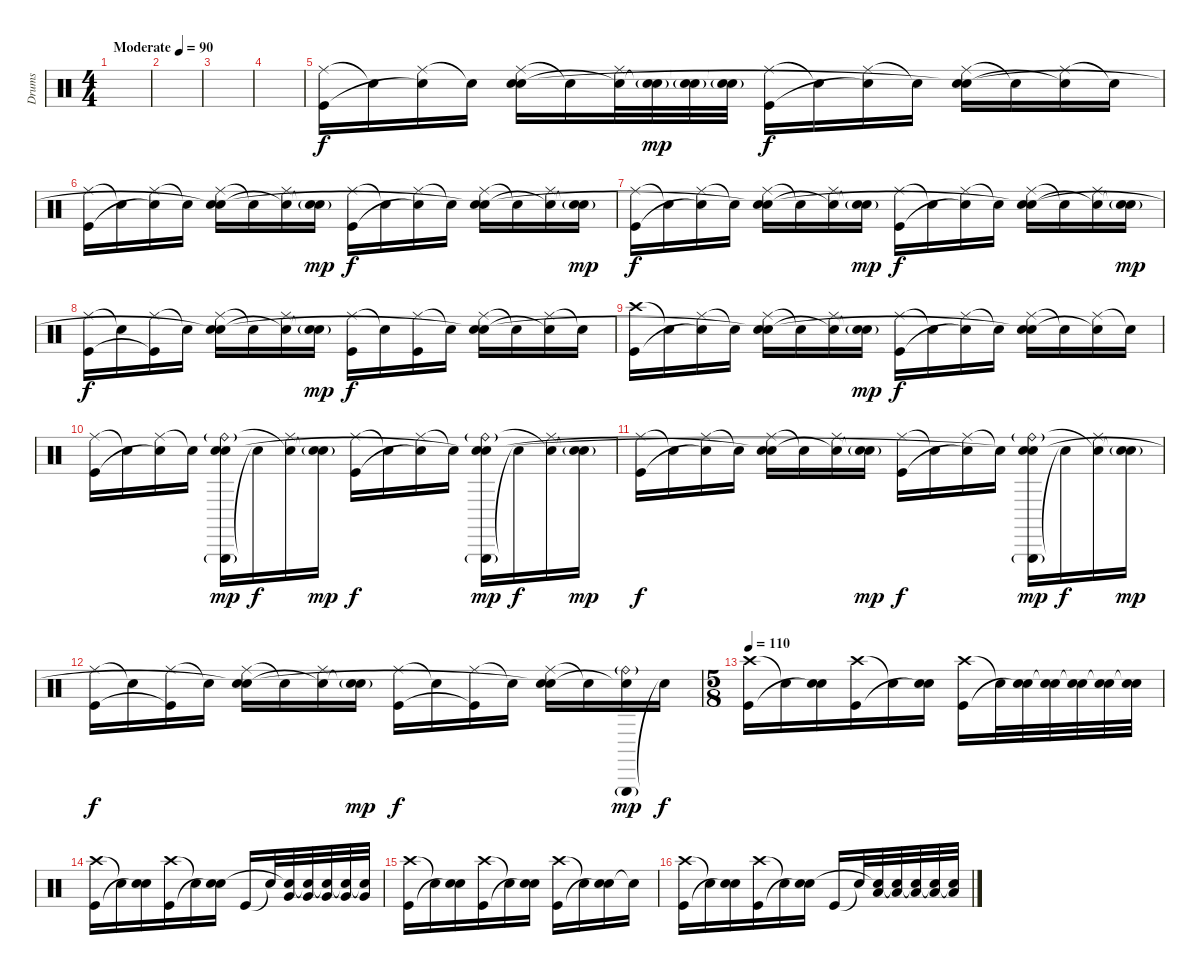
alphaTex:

\track ("Drums" "Drums") {instrument percussion}
\staff {score}
\articulation defaults
\ts (4 4)
\tempo (90 "Moderate")
\clef neutral
\ks c
|
|
|
|
("Ride (middle)" "Kick (hit)").16 "Snare (hit)"{t}.16 ("Ride (middle)" "Snare (hit)"{t}).16 "Snare (hit)"{t}.16 ("Ride (middle)" "Electric Snare (hit)" "Snare (hit)").16 "Snare (hit)"{t}.16 ("Ride (middle)" "Snare (hit)"{t}).32 ("Electric Snare (hit)"{g} "Snare (hit)"{t}).32{dy mp} ("Electric Snare (hit)"{g} "Snare (hit)"{t}).32 ("Electric Snare (hit)"{g} "Snare (hit)"{t}).32 ("Ride (middle)" "Kick (hit)").16{dy f} "Snare (hit)"{t}.16 ("Ride (middle)" "Snare (hit)"{t}).16 "Snare (hit)"{t}.16 ("Ride (middle)" "Electric Snare (hit)" "Snare (hit)"{t}).16 "Snare (hit)"{t}.16 ("Ride (middle)" "Snare (hit)"{t}).16 "Snare (hit)"{t}.16 |
("Ride (middle)" "Kick (hit)").16 "Snare (hit)"{t}.16 ("Ride (middle)" "Snare (hit)"{t}).16 "Snare (hit)"{t}.16 ("Ride (middle)" "Electric Snare (hit)" "Snare (hit)"{t}).16 "Snare (hit)"{t}.16 ("Ride (middle)" "Snare (hit)"{t}).16 ("Electric Snare (hit)"{g} "Snare (hit)"{t}).16{dy mp} ("Ride (middle)" "Kick (hit)").16{dy f} "Snare (hit)"{t}.16 ("Ride (middle)" "Snare (hit)"{t}).16 "Snare (hit)"{t}.16 ("Ride (middle)" "Electric Snare (hit)" "Snare (hit)"{t}).16 "Snare (hit)"{t}.16 ("Ride (middle)" "Snare (hit)"{t}).16 ("Electric Snare (hit)"{g} "Snare (hit)"{t}).16{dy mp} |
("Ride (middle)" "Kick (hit)").16{dy f} "Snare (hit)"{t}.16 ("Ride (middle)" "Snare (hit)"{t}).16 "Snare (hit)"{t}.16 ("Ride (middle)" "Electric Snare (hit)" "Snare (hit)"{t}).16 "Snare (hit)"{t}.16 ("Ride (middle)" "Snare (hit)"{t}).16 ("Electric Snare (hit)"{g} "Snare (hit)"{t}).16{dy mp} ("Ride (middle)" "Kick (hit)").16{dy f} "Snare (hit)"{t}.16 ("Ride (middle)" "Snare (hit)"{t}).16 "Snare (hit)"{t}.16 ("Ride (middle)" "Electric Snare (hit)" "Snare (hit)"{t}).16 "Snare (hit)"{t}.16 ("Ride (middle)" "Snare (hit)"{t}).16 ("Electric Snare (hit)"{g} "Snare (hit)"{t}).16{dy mp} |
("Ride (middle)" "Kick (hit)").16{dy f} "Snare (hit)"{t}.16 ("Ride (middle)" "Kick (hit)"{t}).16 "Snare (hit)"{t}.16 ("Ride (middle)" "Electric Snare (hit)" "Snare (hit)"{t}).16 "Snare (hit)"{t}.16 ("Ride (middle)" "Snare (hit)"{t}).16 ("Electric Snare (hit)"{g} "Snare (hit)"{t}).16{dy mp} ("Ride (middle)" "Kick (hit)").16{dy f} "Snare (hit)"{t}.16 ("Ride (middle)" "Kick (hit)").16 "Snare (hit)"{t}.16 ("Ride (middle)" "Electric Snare (hit)" "Snare (hit)"{t}).16 "Snare (hit)"{t}.16 ("Ride (middle)" "Snare (hit)"{t}).16 "Snare (hit)"{t}.16 |
("Crash high (hit)" "Kick (hit)").16 "Snare (hit)"{t}.16 ("Ride (middle)" "Snare (hit)"{t}).16 "Snare (hit)"{t}.16 ("Ride (middle)" "Electric Snare (hit)" "Snare (hit)"{t}).16 "Snare (hit)"{t}.16 ("Ride (middle)" "Snare (hit)"{t}).16 ("Electric Snare (hit)"{g} "Snare (hit)"{t}).16{dy mp} ("Ride (middle)" "Kick (hit)").16{dy f} "Snare (hit)"{t}.16 ("Ride (middle)" "Snare (hit)"{t}).16 "Snare (hit)"{t}.16 ("Ride (middle)" "Electric Snare (hit)" "Snare (hit)"{t}).16 "Snare (hit)"{t}.16 ("Ride (middle)" "Snare (hit)"{t}).16 "Snare (hit)"{t}.16 |
("Ride (middle)" "Kick (hit)").16 "Snare (hit)"{t}.16 ("Ride (middle)" "Snare (hit)"{t}).16 "Snare (hit)"{t}.16 ("Triangle (hit)"{g} "Ride (bell)"{g} "Electric Snare (hit)" "Snare (hit)").16{dy mp} "Snare (hit)"{t}.16{dy f} ("Ride (middle)" "Snare (hit)"{t}).16 ("Electric Snare (hit)"{g} "Snare (hit)"{t}).16{dy mp} ("Ride (middle)" "Kick (hit)").16{dy f} "Snare (hit)"{t}.16 ("Ride (middle)" "Snare (hit)"{t}).16 "Snare (hit)"{t}.16 ("Triangle (hit)"{g} "Ride (bell)"{g} "Electric Snare (hit)" "Snare (hit)"{t}).16{dy mp} "Snare (hit)"{t}.16{dy f} ("Ride (middle)" "Snare (hit)"{t}).16 ("Electric Snare (hit)"{g} "Snare (hit)"{t}).16{dy mp} |
("Ride (middle)" "Kick (hit)").16{dy f} "Snare (hit)"{t}.16 ("Ride (middle)" "Snare (hit)"{t}).16 "Snare (hit)"{t}.16 ("Ride (middle)" "Electric Snare (hit)" "Snare (hit)"{t}).16 "Snare (hit)"{t}.16 ("Ride (middle)" "Snare (hit)"{t}).16 ("Electric Snare (hit)"{g} "Snare (hit)"{t}).16{dy mp} ("Ride (middle)" "Kick (hit)").16{dy f} "Snare (hit)"{t}.16 ("Ride (middle)" "Snare (hit)"{t}).16 "Snare (hit)"{t}.16 ("Triangle (hit)"{g} "Ride (bell)"{g} "Electric Snare (hit)" "Snare (hit)"{t}).16{dy mp} "Snare (hit)"{t}.16{dy f} ("Ride (middle)" "Snare (hit)"{t}).16 ("Electric Snare (hit)"{g} "Snare (hit)"{t}).16{dy mp} |
("Ride (middle)" "Kick (hit)").16{dy f} "Snare (hit)"{t}.16 ("Ride (middle)" "Kick (hit)"{t}).16 "Snare (hit)"{t}.16 ("Ride (middle)" "Electric Snare (hit)" "Snare (hit)"{t}).16 "Snare (hit)"{t}.16 ("Ride (middle)" "Snare (hit)"{t}).16 ("Electric Snare (hit)"{g} "Snare (hit)"{t}).16{dy mp} ("Ride (middle)" "Kick (hit)").16{dy f} "Snare (hit)"{t}.16 ("Ride (middle)" "Kick (hit)"{t}).16 "Snare (hit)"{t}.16 ("Ride (middle)" "Electric Snare (hit)" "Snare (hit)"{t}).16 "Snare (hit)"{t}.16 ("Triangle (hit)"{g} "Ride (bell)"{g} "Snare (hit)"{t}).16{dy mp} "Snare (hit)"{t}.16{dy f} |
\ts (5 8)
\tempo 110
("Crash high (hit)" "Kick (hit)").16 "Snare (hit)"{t}.16 ("Electric Snare (hit)" "Snare (hit)"{t}).16 ("Crash high (hit)" "Kick (hit)").16 "Snare (hit)"{t}.16 ("Electric Snare (hit)" "Snare (hit)"{t}).16 ("Crash high (hit)" "Kick (hit)").16 "Snare (hit)"{t}.32 ("Electric Snare (hit)" "Snare (hit)"{t}).32 ("Electric Snare (hit)" "Snare (hit)"{t}).32 ("Electric Snare (hit)" "Snare (hit)"{t}).32 ("Electric Snare (hit)" "Snare (hit)"{t}).32 ("Electric Snare (hit)" "Snare (hit)"{t}).32 |
("Crash high (hit)" "Kick (hit)").16 "Snare (hit)"{t}.16 ("Electric Snare (hit)" "Snare (hit)"{t}).16 ("Crash high (hit)" "Kick (hit)").16 "Snare (hit)"{t}.16 ("Electric Snare (hit)" "Snare (hit)"{t}).16 "Kick (hit)".16 "Snare (hit)"{t}.32 ("Very Low Tom (hit)" "Snare (hit)"{t}).32 ("Very Low Tom (hit)" "Snare (hit)"{t}).32 ("Very Low Tom (hit)" "Snare (hit)"{t}).32 ("Very Low Tom (hit)" "Snare (hit)"{t}).32 ("Very Low Tom (hit)" "Snare (hit)"{t}).32 |
("Crash high (hit)" "Kick (hit)").16 "Snare (hit)"{t}.16 ("Electric Snare (hit)" "Snare (hit)"{t}).16 ("Crash high (hit)" "Kick (hit)").16 "Snare (hit)"{t}.16 ("Electric Snare (hit)" "Snare (hit)"{t}).16 ("Crash high (hit)" "Kick (hit)").16 "Snare (hit)"{t}.16 ("Electric Snare (hit)" "Snare (hit)"{t}).16 "Snare (hit)"{t}.16 |
("Crash high (hit)" "Kick (hit)").16 "Snare (hit)"{t}.16 ("Electric Snare (hit)" "Snare (hit)"{t}).16 ("Crash high (hit)" "Kick (hit)").16 "Snare (hit)"{t}.16 ("Electric Snare (hit)" "Snare (hit)"{t}).16 "Kick (hit)".16 "Snare (hit)"{t}.32 ("Low Tom (hit)" "Snare (hit)"{t}).32 ("Low Tom (hit)" "Snare (hit)"{t}).32 ("Low Tom (hit)" "Snare (hit)"{t}).32 ("Low Tom (hit)" "Snare (hit)"{t}).32 ("Low Tom (hit)" "Snare (hit)"{t}).32
